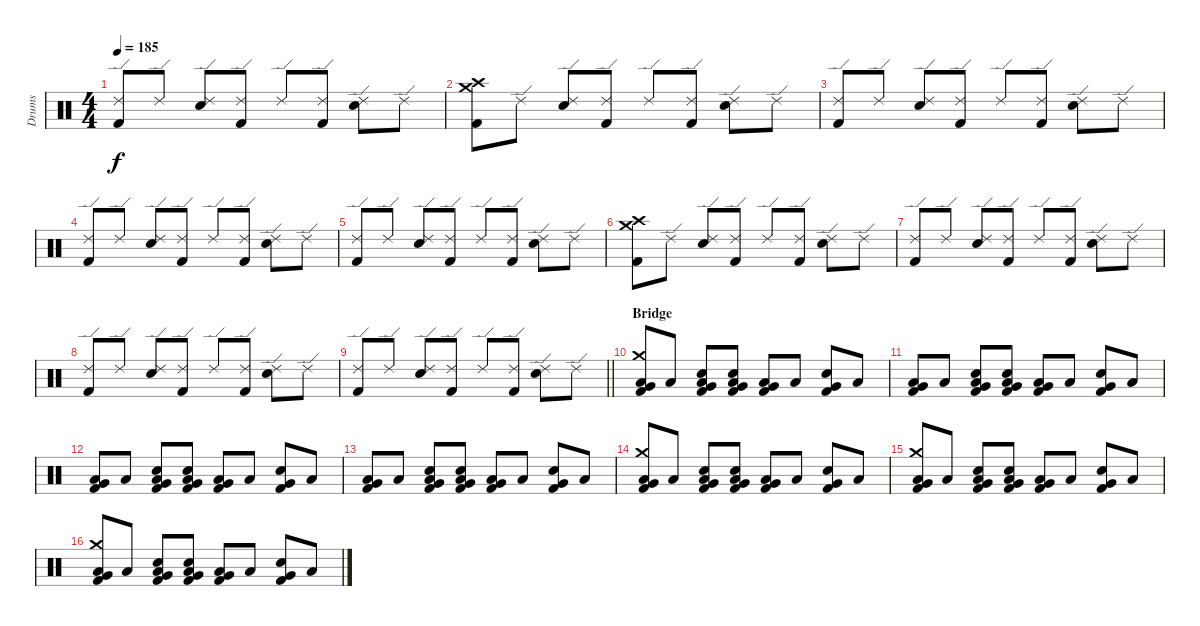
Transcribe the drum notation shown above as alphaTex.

\track ("Drums" "Drums") {instrument percussion bank 1}
\staff {score}
\articulation defaults
\ts (4 4)
\tempo 185
\clef neutral
\ks c
("Ride (edge) 2" "Kick (hit) 2").8{dy f} "Ride (edge) 2".8 ("Snare (hit) 2" "Ride (edge) 2").8 ("Kick (hit) 2" "Ride (edge) 2").8 "Ride (edge) 2".8 ("Kick (hit) 2" "Ride (edge) 2").8 ("Snare (hit) 2" "Ride (edge) 2").8 "Ride (edge) 2".8 |
("Crash medium (hit)" "Crash high (hit)" "Kick (hit) 2").8 "Ride (edge) 2".8 ("Snare (hit) 2" "Ride (edge) 2").8 ("Kick (hit) 2" "Ride (edge) 2").8 "Ride (edge) 2".8 ("Kick (hit) 2" "Ride (edge) 2").8 ("Snare (hit) 2" "Ride (edge) 2").8 "Ride (edge) 2".8 |
("Ride (edge) 2" "Kick (hit) 2").8 "Ride (edge) 2".8 ("Snare (hit) 2" "Ride (edge) 2").8 ("Kick (hit) 2" "Ride (edge) 2").8 "Ride (edge) 2".8 ("Kick (hit) 2" "Ride (edge) 2").8 ("Snare (hit) 2" "Ride (edge) 2").8 "Ride (edge) 2".8 |
("Ride (edge) 2" "Kick (hit) 2").8 "Ride (edge) 2".8 ("Snare (hit) 2" "Ride (edge) 2").8 ("Kick (hit) 2" "Ride (edge) 2").8 "Ride (edge) 2".8 ("Kick (hit) 2" "Ride (edge) 2").8 ("Snare (hit) 2" "Ride (edge) 2").8 "Ride (edge) 2".8 |
("Ride (edge) 2" "Kick (hit) 2").8 "Ride (edge) 2".8 ("Snare (hit) 2" "Ride (edge) 2").8 ("Kick (hit) 2" "Ride (edge) 2").8 "Ride (edge) 2".8 ("Kick (hit) 2" "Ride (edge) 2").8 ("Snare (hit) 2" "Ride (edge) 2").8 "Ride (edge) 2".8 |
("Crash medium (hit)" "Crash high (hit)" "Kick (hit) 2").8 "Ride (edge) 2".8 ("Snare (hit) 2" "Ride (edge) 2").8 ("Kick (hit) 2" "Ride (edge) 2").8 "Ride (edge) 2".8 ("Kick (hit) 2" "Ride (edge) 2").8 ("Snare (hit) 2" "Ride (edge) 2").8 "Ride (edge) 2".8 |
("Ride (edge) 2" "Kick (hit) 2").8 "Ride (edge) 2".8 ("Snare (hit) 2" "Ride (edge) 2").8 ("Kick (hit) 2" "Ride (edge) 2").8 "Ride (edge) 2".8 ("Kick (hit) 2" "Ride (edge) 2").8 ("Snare (hit) 2" "Ride (edge) 2").8 "Ride (edge) 2".8 |
("Ride (edge) 2" "Kick (hit) 2").8 "Ride (edge) 2".8 ("Snare (hit) 2" "Ride (edge) 2").8 ("Kick (hit) 2" "Ride (edge) 2").8 "Ride (edge) 2".8 ("Kick (hit) 2" "Ride (edge) 2").8 ("Snare (hit) 2" "Ride (edge) 2").8 "Ride (edge) 2".8 |
\barLineRight lightlight
("Ride (edge) 2" "Kick (hit) 2").8 "Ride (edge) 2".8 ("Snare (hit) 2" "Ride (edge) 2").8 ("Kick (hit) 2" "Ride (edge) 2").8 "Ride (edge) 2".8 ("Kick (hit) 2" "Ride (edge) 2").8 ("Snare (hit) 2" "Ride (edge) 2").8 "Ride (edge) 2".8 |
\section ("" "Bridge")
("Crash medium (hit)" "Very Low Tom (hit)" "Kick (hit) 2" "Low Tom (hit)").8 "Low Tom (hit)".8 ("Snare (hit) 2" "Kick (hit) 2" "Very Low Tom (hit)" "Low Tom (hit)").8 ("Snare (hit) 2" "Very Low Tom (hit)" "Kick (hit) 2" "Low Tom (hit)").8 ("Low Tom (hit)" "Very Low Tom (hit)" "Kick (hit) 2").8 "Low Tom (hit)".8 ("Snare (hit) 2" "Kick (hit) 2" "Very Low Tom (hit)").8 "Low Tom (hit)".8 |
("Very Low Tom (hit)" "Kick (hit) 2" "Low Tom (hit)").8 "Low Tom (hit)".8 ("Snare (hit) 2" "Kick (hit) 2" "Very Low Tom (hit)" "Low Tom (hit)").8 ("Snare (hit) 2" "Very Low Tom (hit)" "Kick (hit) 2" "Low Tom (hit)").8 ("Low Tom (hit)" "Very Low Tom (hit)" "Kick (hit) 2").8 "Low Tom (hit)".8 ("Snare (hit) 2" "Kick (hit) 2" "Very Low Tom (hit)").8 "Low Tom (hit)".8 |
("Very Low Tom (hit)" "Kick (hit) 2" "Low Tom (hit)").8 "Low Tom (hit)".8 ("Snare (hit) 2" "Kick (hit) 2" "Very Low Tom (hit)" "Low Tom (hit)").8 ("Snare (hit) 2" "Very Low Tom (hit)" "Kick (hit) 2" "Low Tom (hit)").8 ("Low Tom (hit)" "Very Low Tom (hit)" "Kick (hit) 2").8 "Low Tom (hit)".8 ("Snare (hit) 2" "Kick (hit) 2" "Very Low Tom (hit)").8 "Low Tom (hit)".8 |
("Very Low Tom (hit)" "Kick (hit) 2" "Low Tom (hit)").8 "Low Tom (hit)".8 ("Snare (hit) 2" "Kick (hit) 2" "Very Low Tom (hit)" "Low Tom (hit)").8 ("Snare (hit) 2" "Very Low Tom (hit)" "Kick (hit) 2" "Low Tom (hit)").8 ("Low Tom (hit)" "Very Low Tom (hit)" "Kick (hit) 2").8 "Low Tom (hit)".8 ("Snare (hit) 2" "Kick (hit) 2" "Very Low Tom (hit)").8 "Low Tom (hit)".8 |
("Crash medium (hit)" "Very Low Tom (hit)" "Kick (hit) 2" "Low Tom (hit)").8 "Low Tom (hit)".8 ("Snare (hit) 2" "Kick (hit) 2" "Very Low Tom (hit)" "Low Tom (hit)").8 ("Snare (hit) 2" "Very Low Tom (hit)" "Kick (hit) 2" "Low Tom (hit)").8 ("Low Tom (hit)" "Very Low Tom (hit)" "Kick (hit) 2").8 "Low Tom (hit)".8 ("Snare (hit) 2" "Kick (hit) 2" "Very Low Tom (hit)").8 "Low Tom (hit)".8 |
("Crash medium (hit)" "Very Low Tom (hit)" "Kick (hit) 2" "Low Tom (hit)").8 "Low Tom (hit)".8 ("Snare (hit) 2" "Kick (hit) 2" "Very Low Tom (hit)" "Low Tom (hit)").8 ("Snare (hit) 2" "Very Low Tom (hit)" "Kick (hit) 2" "Low Tom (hit)").8 ("Low Tom (hit)" "Very Low Tom (hit)" "Kick (hit) 2").8 "Low Tom (hit)".8 ("Snare (hit) 2" "Kick (hit) 2" "Very Low Tom (hit)").8 "Low Tom (hit)".8 |
("Crash medium (hit)" "Very Low Tom (hit)" "Kick (hit) 2" "Low Tom (hit)").8 "Low Tom (hit)".8 ("Snare (hit) 2" "Kick (hit) 2" "Very Low Tom (hit)" "Low Tom (hit)").8 ("Snare (hit) 2" "Very Low Tom (hit)" "Kick (hit) 2" "Low Tom (hit)").8 ("Low Tom (hit)" "Very Low Tom (hit)" "Kick (hit) 2").8 "Low Tom (hit)".8 ("Snare (hit) 2" "Kick (hit) 2" "Very Low Tom (hit)").8 "Low Tom (hit)".8
